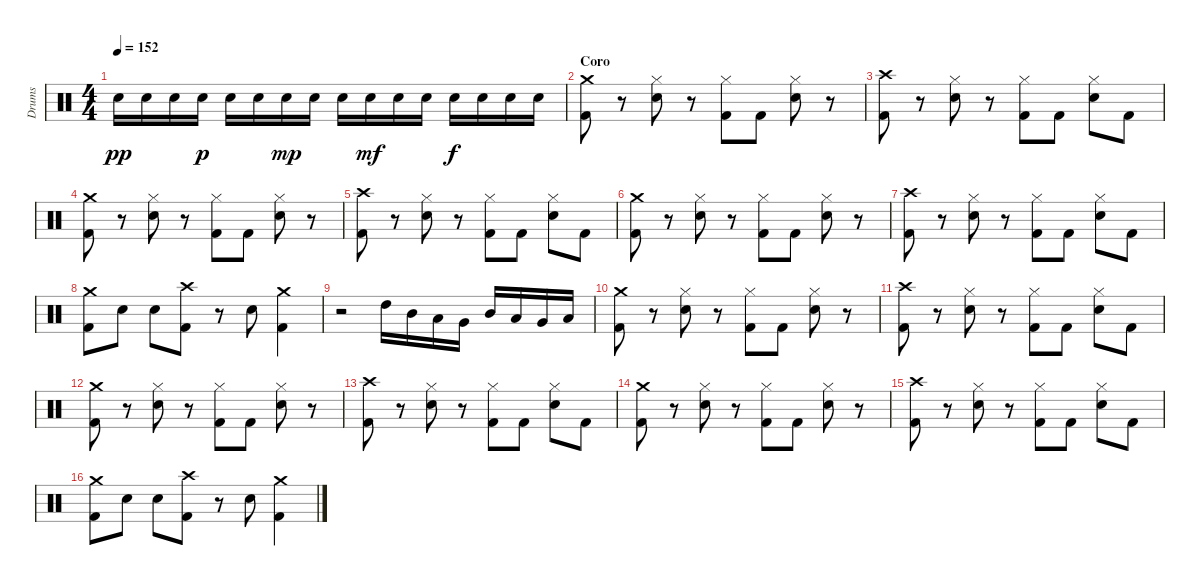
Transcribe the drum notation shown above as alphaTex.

\track ("Drums" "Drums") {instrument percussion}
\staff {score}
\articulation defaults
\ts (4 4)
\tempo 152
\clef neutral
\ks c "Electric Snare (hit)".16{dy pp} "Electric Snare (hit)".16 "Electric Snare (hit)".16 "Electric Snare (hit)".16{dy p} "Electric Snare (hit)".16 "Electric Snare (hit)".16 "Electric Snare (hit)".16{dy mp} "Electric Snare (hit)".16 "Electric Snare (hit)".16 "Electric Snare (hit)".16{dy mf} "Electric Snare (hit)".16 "Electric Snare (hit)".16 "Electric Snare (hit)".16{dy f} "Electric Snare (hit)".16 "Electric Snare (hit)".16 "Electric Snare (hit)".16
|
\section ("" "Coro")
("Crash medium (hit)" "Kick (hit) 2").8 r.8 ("Hi-Hat (closed)" "Electric Snare (hit)").8 r.8 ("Hi-Hat (closed)" "Kick (hit) 2").8 "Kick (hit) 2".8 ("Hi-Hat (closed)" "Electric Snare (hit)").8 r.8 |
("Crash high (hit)" "Kick (hit) 2").8 r.8 ("Hi-Hat (closed)" "Electric Snare (hit)").8 r.8 ("Hi-Hat (closed)" "Kick (hit) 2").8 "Kick (hit) 2".8 ("Hi-Hat (closed)" "Electric Snare (hit)").8 "Kick (hit) 2".8 |
("Crash medium (hit)" "Kick (hit) 2").8 r.8 ("Hi-Hat (closed)" "Electric Snare (hit)").8 r.8 ("Hi-Hat (closed)" "Kick (hit) 2").8 "Kick (hit) 2".8 ("Hi-Hat (closed)" "Electric Snare (hit)").8 r.8 |
("Crash high (hit)" "Kick (hit) 2").8 r.8 ("Hi-Hat (closed)" "Electric Snare (hit)").8 r.8 ("Hi-Hat (closed)" "Kick (hit) 2").8 "Kick (hit) 2".8 ("Hi-Hat (closed)" "Electric Snare (hit)").8 "Kick (hit) 2".8 |
("Crash medium (hit)" "Kick (hit) 2").8 r.8 ("Hi-Hat (closed)" "Electric Snare (hit)").8 r.8 ("Hi-Hat (closed)" "Kick (hit) 2").8 "Kick (hit) 2".8 ("Hi-Hat (closed)" "Electric Snare (hit)").8 r.8 |
("Crash high (hit)" "Kick (hit) 2").8 r.8 ("Hi-Hat (closed)" "Electric Snare (hit)").8 r.8 ("Hi-Hat (closed)" "Kick (hit) 2").8 "Kick (hit) 2".8 ("Hi-Hat (closed)" "Electric Snare (hit)").8 "Kick (hit) 2".8 |
("Crash medium (hit)" "Kick (hit) 2").8 "Electric Snare (hit)".8 "Electric Snare (hit)".8 ("Crash high (hit)" "Kick (hit) 2").8 r.8 "Electric Snare (hit)".8 ("Crash medium (hit)" "Kick (hit) 2").4 |
r.2 "High Tom (hit)".16 "Mid Tom (hit)".16 "Low Tom (hit)".16 "Very Low Tom (hit)".16 "Mid Tom (hit)".16 "Low Tom (hit)".16 "Very Low Tom (hit)".16 "Low Floor Tom (hit)".16 |
("Crash medium (hit)" "Kick (hit) 2").8 r.8 ("Hi-Hat (closed)" "Electric Snare (hit)").8 r.8 ("Hi-Hat (closed)" "Kick (hit) 2").8 "Kick (hit) 2".8 ("Hi-Hat (closed)" "Electric Snare (hit)").8 r.8 |
("Crash high (hit)" "Kick (hit) 2").8 r.8 ("Hi-Hat (closed)" "Electric Snare (hit)").8 r.8 ("Hi-Hat (closed)" "Kick (hit) 2").8 "Kick (hit) 2".8 ("Hi-Hat (closed)" "Electric Snare (hit)").8 "Kick (hit) 2".8 |
("Crash medium (hit)" "Kick (hit) 2").8 r.8 ("Hi-Hat (closed)" "Electric Snare (hit)").8 r.8 ("Hi-Hat (closed)" "Kick (hit) 2").8 "Kick (hit) 2".8 ("Hi-Hat (closed)" "Electric Snare (hit)").8 r.8 |
("Crash high (hit)" "Kick (hit) 2").8 r.8 ("Hi-Hat (closed)" "Electric Snare (hit)").8 r.8 ("Hi-Hat (closed)" "Kick (hit) 2").8 "Kick (hit) 2".8 ("Hi-Hat (closed)" "Electric Snare (hit)").8 "Kick (hit) 2".8 |
("Crash medium (hit)" "Kick (hit) 2").8 r.8 ("Hi-Hat (closed)" "Electric Snare (hit)").8 r.8 ("Hi-Hat (closed)" "Kick (hit) 2").8 "Kick (hit) 2".8 ("Hi-Hat (closed)" "Electric Snare (hit)").8 r.8 |
("Crash high (hit)" "Kick (hit) 2").8 r.8 ("Hi-Hat (closed)" "Electric Snare (hit)").8 r.8 ("Hi-Hat (closed)" "Kick (hit) 2").8 "Kick (hit) 2".8 ("Hi-Hat (closed)" "Electric Snare (hit)").8 "Kick (hit) 2".8 |
("Crash medium (hit)" "Kick (hit) 2").8 "Electric Snare (hit)".8 "Electric Snare (hit)".8 ("Crash high (hit)" "Kick (hit) 2").8 r.8 "Electric Snare (hit)".8 ("Crash medium (hit)" "Kick (hit) 2").4
